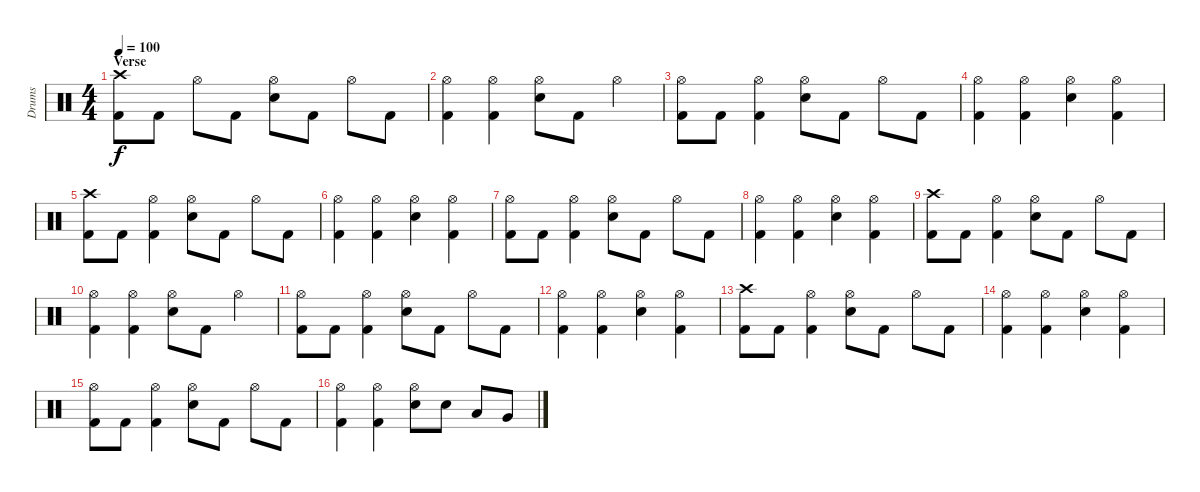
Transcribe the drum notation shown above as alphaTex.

\track ("Drums" "Drums") {instrument percussion}
\staff {score}
\articulation defaults
\ts (4 4)
\section ("" "Verse")
\tempo 100
\clef neutral
\ks c
("Crash high (hit)" "Kick (hit) 2").8{dy f} "Kick (hit) 2".8 "Hi-Hat (open)".8 "Kick (hit) 2".8 ("Hi-Hat (open)" "Electric Snare (hit)").8 "Kick (hit) 2".8 "Hi-Hat (open)".8 "Kick (hit) 2".8 |
("Hi-Hat (open)" "Kick (hit) 2").4 ("Hi-Hat (open)" "Kick (hit) 2").4 ("Hi-Hat (open)" "Electric Snare (hit)").8 "Kick (hit) 2".8 "Hi-Hat (open)".4 |
("Hi-Hat (open)" "Kick (hit) 2").8 "Kick (hit) 2".8 ("Hi-Hat (open)" "Kick (hit) 2").4 ("Hi-Hat (open)" "Electric Snare (hit)").8 "Kick (hit) 2".8 "Hi-Hat (open)".8 "Kick (hit) 2".8 |
("Hi-Hat (open)" "Kick (hit) 2").4 ("Hi-Hat (open)" "Kick (hit) 2").4 ("Hi-Hat (open)" "Electric Snare (hit)").4 ("Hi-Hat (open)" "Kick (hit) 2").4 |
("Crash high (hit)" "Kick (hit) 2").8 "Kick (hit) 2".8 ("Hi-Hat (open)" "Kick (hit) 2").4 ("Hi-Hat (open)" "Electric Snare (hit)").8 "Kick (hit) 2".8 "Hi-Hat (open)".8 "Kick (hit) 2".8 |
("Hi-Hat (open)" "Kick (hit) 2").4 ("Hi-Hat (open)" "Kick (hit) 2").4 ("Hi-Hat (open)" "Electric Snare (hit)").4 ("Hi-Hat (open)" "Kick (hit) 2").4 |
("Hi-Hat (open)" "Kick (hit) 2").8 "Kick (hit) 2".8 ("Hi-Hat (open)" "Kick (hit) 2").4 ("Hi-Hat (open)" "Electric Snare (hit)").8 "Kick (hit) 2".8 "Hi-Hat (open)".8 "Kick (hit) 2".8 |
("Hi-Hat (open)" "Kick (hit) 2").4 ("Hi-Hat (open)" "Kick (hit) 2").4 ("Hi-Hat (open)" "Electric Snare (hit)").4 ("Hi-Hat (open)" "Kick (hit) 2").4 |
("Crash high (hit)" "Kick (hit) 2").8 "Kick (hit) 2".8 ("Hi-Hat (open)" "Kick (hit) 2").4 ("Hi-Hat (open)" "Electric Snare (hit)").8 "Kick (hit) 2".8 "Hi-Hat (open)".8 "Kick (hit) 2".8 |
("Hi-Hat (open)" "Kick (hit) 2").4 ("Hi-Hat (open)" "Kick (hit) 2").4 ("Hi-Hat (open)" "Electric Snare (hit)").8 "Kick (hit) 2".8 "Hi-Hat (open)".4 |
("Hi-Hat (open)" "Kick (hit) 2").8 "Kick (hit) 2".8 ("Hi-Hat (open)" "Kick (hit) 2").4 ("Hi-Hat (open)" "Electric Snare (hit)").8 "Kick (hit) 2".8 "Hi-Hat (open)".8 "Kick (hit) 2".8 |
("Hi-Hat (open)" "Kick (hit) 2").4 ("Hi-Hat (open)" "Kick (hit) 2").4 ("Hi-Hat (open)" "Electric Snare (hit)").4 ("Hi-Hat (open)" "Kick (hit) 2").4 |
("Crash high (hit)" "Kick (hit) 2").8 "Kick (hit) 2".8 ("Hi-Hat (open)" "Kick (hit) 2").4 ("Hi-Hat (open)" "Electric Snare (hit)").8 "Kick (hit) 2".8 "Hi-Hat (open)".8 "Kick (hit) 2".8 |
("Hi-Hat (open)" "Kick (hit) 2").4 ("Hi-Hat (open)" "Kick (hit) 2").4 ("Hi-Hat (open)" "Electric Snare (hit)").4 ("Hi-Hat (open)" "Kick (hit) 2").4 |
("Hi-Hat (open)" "Kick (hit) 2").8 "Kick (hit) 2".8 ("Hi-Hat (open)" "Kick (hit) 2").4 ("Hi-Hat (open)" "Electric Snare (hit)").8 "Kick (hit) 2".8 "Hi-Hat (open)".8 "Kick (hit) 2".8 |
("Hi-Hat (open)" "Kick (hit) 2").4 ("Hi-Hat (open)" "Kick (hit) 2").4 ("Hi-Hat (open)" "Electric Snare (hit)").8 "Electric Snare (hit)".8 "Low Tom (hit)".8 "Very Low Tom (hit)".8
